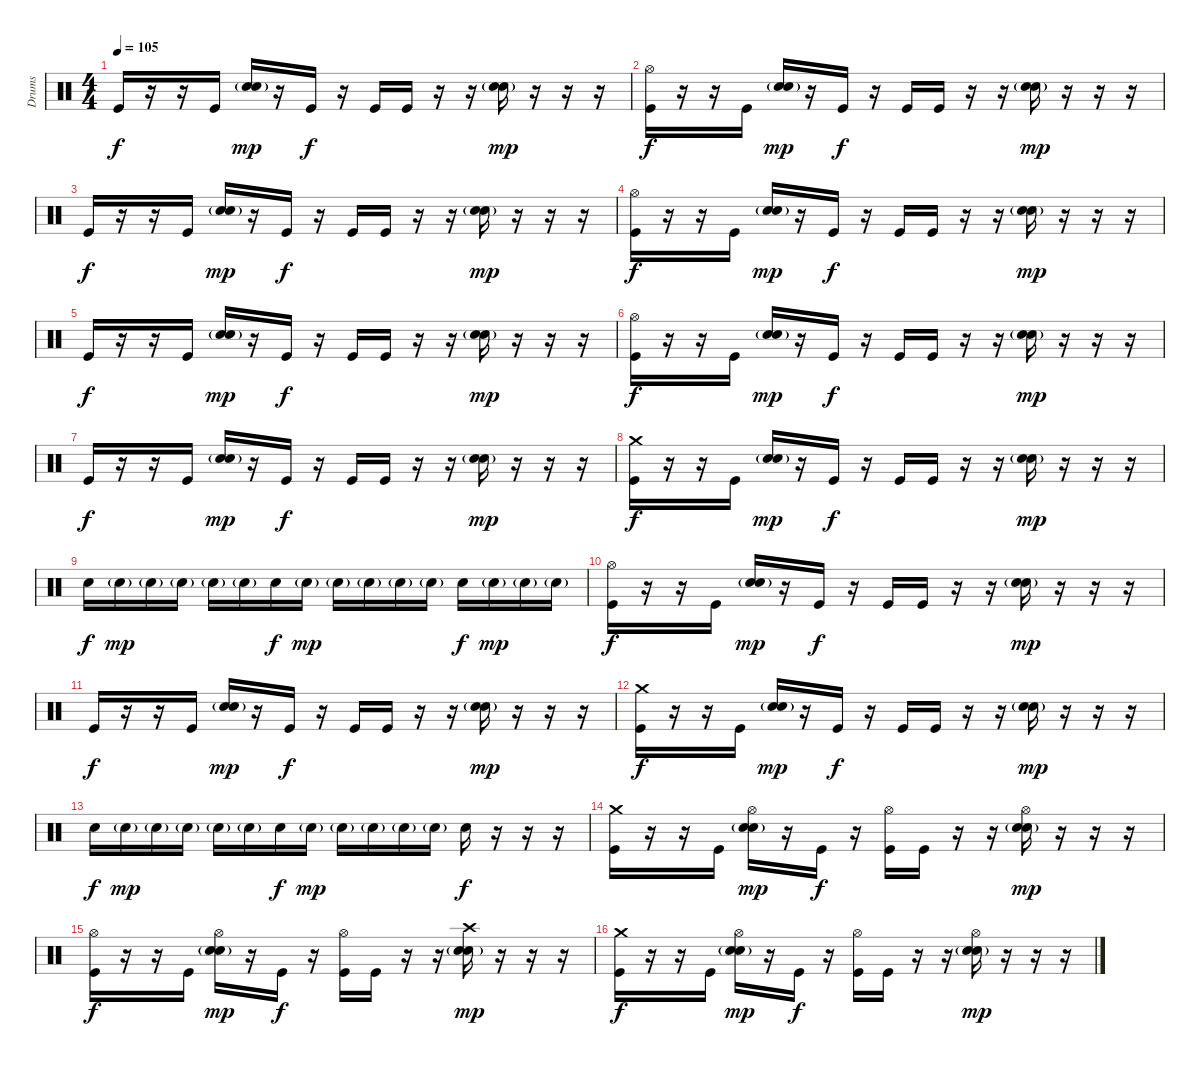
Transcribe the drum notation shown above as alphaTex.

\track ("Drums" "Drums") {instrument percussion}
\staff {score}
\articulation defaults
\ts (4 4)
\tempo 105
\clef neutral
\ks c "Kick (hit)".16{dy f}
r.16 r.16 "Kick (hit)".16 ("Snare (hit) 2"{g} "Snare (hit) 2").16{dy mp} r.16 "Kick (hit)".16{dy f} r.16 "Kick (hit)".16 "Kick (hit)".16 r.16 r.16 ("Snare (hit) 2"{g} "Snare (hit) 2").16{dy mp} r.16 r.16 r.16 |
("Hi-Hat (open)" "Kick (hit)").16{dy f} r.16 r.16 "Kick (hit)".16 ("Snare (hit) 2"{g} "Snare (hit) 2").16{dy mp} r.16 "Kick (hit)".16{dy f} r.16 "Kick (hit)".16 "Kick (hit)".16 r.16 r.16 ("Snare (hit) 2"{g} "Snare (hit) 2").16{dy mp} r.16 r.16 r.16 |
"Kick (hit)".16{dy f} r.16 r.16 "Kick (hit)".16 ("Snare (hit) 2"{g} "Snare (hit) 2").16{dy mp} r.16 "Kick (hit)".16{dy f} r.16 "Kick (hit)".16 "Kick (hit)".16 r.16 r.16 ("Snare (hit) 2"{g} "Snare (hit) 2").16{dy mp} r.16 r.16 r.16 |
("Hi-Hat (open)" "Kick (hit)").16{dy f} r.16 r.16 "Kick (hit)".16 ("Snare (hit) 2"{g} "Snare (hit) 2").16{dy mp} r.16 "Kick (hit)".16{dy f} r.16 "Kick (hit)".16 "Kick (hit)".16 r.16 r.16 ("Snare (hit) 2"{g} "Snare (hit) 2").16{dy mp} r.16 r.16 r.16 |
"Kick (hit)".16{dy f} r.16 r.16 "Kick (hit)".16 ("Snare (hit) 2"{g} "Snare (hit) 2").16{dy mp} r.16 "Kick (hit)".16{dy f} r.16 "Kick (hit)".16 "Kick (hit)".16 r.16 r.16 ("Snare (hit) 2"{g} "Snare (hit) 2").16{dy mp} r.16 r.16 r.16 |
("Hi-Hat (open)" "Kick (hit)").16{dy f} r.16 r.16 "Kick (hit)".16 ("Snare (hit) 2"{g} "Snare (hit) 2").16{dy mp} r.16 "Kick (hit)".16{dy f} r.16 "Kick (hit)".16 "Kick (hit)".16 r.16 r.16 ("Snare (hit) 2"{g} "Snare (hit) 2").16{dy mp} r.16 r.16 r.16 |
"Kick (hit)".16{dy f} r.16 r.16 "Kick (hit)".16 ("Snare (hit) 2"{g} "Snare (hit) 2").16{dy mp} r.16 "Kick (hit)".16{dy f} r.16 "Kick (hit)".16 "Kick (hit)".16 r.16 r.16 ("Snare (hit) 2"{g} "Snare (hit) 2").16{dy mp} r.16 r.16 r.16 |
("Crash medium (hit)" "Kick (hit)").16{dy f} r.16 r.16 "Kick (hit)".16 ("Snare (hit) 2"{g} "Snare (hit) 2").16{dy mp} r.16 "Kick (hit)".16{dy f} r.16 "Kick (hit)".16 "Kick (hit)".16 r.16 r.16 ("Snare (hit) 2"{g} "Snare (hit) 2").16{dy mp} r.16 r.16 r.16 |
"Snare (hit) 2".16{dy f} "Snare (hit) 2"{g}.16{dy mp} "Snare (hit) 2"{g}.16 "Snare (hit) 2"{g}.16 "Snare (hit) 2"{g}.16 "Snare (hit) 2"{g}.16 "Snare (hit) 2".16{dy f} "Snare (hit) 2"{g}.16{dy mp} "Snare (hit) 2"{g}.16 "Snare (hit) 2"{g}.16 "Snare (hit) 2"{g}.16 "Snare (hit) 2"{g}.16 "Snare (hit) 2".16{dy f} "Snare (hit) 2"{g}.16{dy mp} "Snare (hit) 2"{g}.16 "Snare (hit) 2"{g}.16 |
("Hi-Hat (open)" "Kick (hit)").16{dy f} r.16 r.16 "Kick (hit)".16 ("Snare (hit) 2"{g} "Snare (hit) 2").16{dy mp} r.16 "Kick (hit)".16{dy f} r.16 "Kick (hit)".16 "Kick (hit)".16 r.16 r.16 ("Snare (hit) 2"{g} "Snare (hit) 2").16{dy mp} r.16 r.16 r.16 |
"Kick (hit)".16{dy f} r.16 r.16 "Kick (hit)".16 ("Snare (hit) 2"{g} "Snare (hit) 2").16{dy mp} r.16 "Kick (hit)".16{dy f} r.16 "Kick (hit)".16 "Kick (hit)".16 r.16 r.16 ("Snare (hit) 2"{g} "Snare (hit) 2").16{dy mp} r.16 r.16 r.16 |
("Crash medium (hit)" "Kick (hit)").16{dy f} r.16 r.16 "Kick (hit)".16 ("Snare (hit) 2"{g} "Snare (hit) 2").16{dy mp} r.16 "Kick (hit)".16{dy f} r.16 "Kick (hit)".16 "Kick (hit)".16 r.16 r.16 ("Snare (hit) 2"{g} "Snare (hit) 2").16{dy mp} r.16 r.16 r.16 |
"Snare (hit) 2".16{dy f} "Snare (hit) 2"{g}.16{dy mp} "Snare (hit) 2"{g}.16 "Snare (hit) 2"{g}.16 "Snare (hit) 2"{g}.16 "Snare (hit) 2"{g}.16 "Snare (hit) 2".16{dy f} "Snare (hit) 2"{g}.16{dy mp} "Snare (hit) 2"{g}.16 "Snare (hit) 2"{g}.16 "Snare (hit) 2"{g}.16 "Snare (hit) 2"{g}.16 "Snare (hit) 2".16{dy f} r.16 r.16 r.16 |
("Crash medium (hit)" "Kick (hit)").16 r.16 r.16 "Kick (hit)".16 ("Hi-Hat (open)" "Snare (hit) 2"{g} "Snare (hit) 2").16{dy mp} r.16 "Kick (hit)".16{dy f} r.16 ("Hi-Hat (open)" "Kick (hit)").16 "Kick (hit)".16 r.16 r.16 ("Hi-Hat (open)" "Snare (hit) 2"{g} "Snare (hit) 2").16{dy mp} r.16 r.16 r.16 |
("Hi-Hat (open)" "Kick (hit)").16{dy f} r.16 r.16 "Kick (hit)".16 ("Hi-Hat (open)" "Snare (hit) 2"{g} "Snare (hit) 2").16{dy mp} r.16 "Kick (hit)".16{dy f} r.16 ("Hi-Hat (open)" "Kick (hit)").16 "Kick (hit)".16 r.16 r.16 ("Crash high (hit)" "Snare (hit) 2"{g} "Snare (hit) 2").16{dy mp} r.16 r.16 r.16 |
("Crash medium (hit)" "Kick (hit)").16{dy f} r.16 r.16 "Kick (hit)".16 ("Hi-Hat (open)" "Snare (hit) 2"{g} "Snare (hit) 2").16{dy mp} r.16 "Kick (hit)".16{dy f} r.16 ("Hi-Hat (open)" "Kick (hit)").16 "Kick (hit)".16 r.16 r.16 ("Hi-Hat (open)" "Snare (hit) 2"{g} "Snare (hit) 2").16{dy mp} r.16 r.16 r.16
